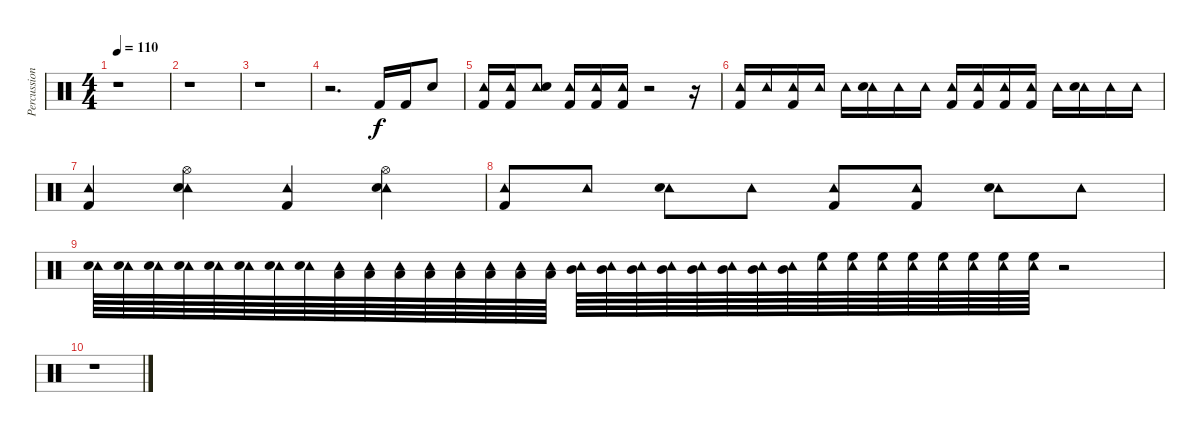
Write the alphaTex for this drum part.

\track ("Percussion" "Percussion") {instrument percussion}
\staff {score}
\articulation defaults
\ts (4 4)
\tempo 110
\clef neutral
\ks c
r.1{dy f} |
r.1 |
r.1 |
r.2{d} "Kick (hit) 2".16 "Kick (hit) 2".16 "Snare (hit) 2".8 |
("Tambourine (hit)" "Kick (hit) 2").16 ("Tambourine (hit)" "Kick (hit) 2").16 ("Tambourine (hit)" "Snare (hit) 2").8 ("Tambourine (hit)" "Kick (hit) 2").16 ("Tambourine (hit)" "Kick (hit) 2").16 ("Tambourine (hit)" "Kick (hit) 2").16 r.2 r.16 |
("Tambourine (hit)" "Kick (hit) 2").16 "Tambourine (hit)".16 ("Tambourine (hit)" "Kick (hit) 2").16 "Tambourine (hit)".16 "Tambourine (hit)".16 ("Tambourine (hit)" "Snare (hit) 2").16 "Tambourine (hit)".16 "Tambourine (hit)".16 ("Tambourine (hit)" "Kick (hit) 2").16 ("Tambourine (hit)" "Kick (hit) 2").16 ("Tambourine (hit)" "Kick (hit) 2").16 ("Tambourine (hit)" "Kick (hit) 2").16 "Tambourine (hit)".16 ("Tambourine (hit)" "Snare (hit) 2").16 "Tambourine (hit)".16 "Tambourine (hit)".16 |
("Tambourine (hit)" "Kick (hit) 2").4 ("Tambourine (hit)" "Hi-Hat (open)" "Snare (hit) 2").4 ("Tambourine (hit)" "Kick (hit) 2").4 ("Tambourine (hit)" "Hi-Hat (open)" "Snare (hit) 2").4 |
("Tambourine (hit)" "Kick (hit) 2").8 "Tambourine (hit)".8 ("Tambourine (hit)" "Snare (hit) 2").8 "Tambourine (hit)".8 ("Tambourine (hit)" "Kick (hit) 2").8 ("Tambourine (hit)" "Kick (hit) 2").8 ("Tambourine (hit)" "Snare (hit) 2").8 "Tambourine (hit)".8 |
("Tambourine (hit)" "Snare (hit) 2").64 ("Tambourine (hit)" "Snare (hit) 2").64 ("Tambourine (hit)" "Snare (hit) 2").64 ("Tambourine (hit)" "Snare (hit) 2").64 ("Tambourine (hit)" "Snare (hit) 2").64 ("Tambourine (hit)" "Snare (hit) 2").64 ("Tambourine (hit)" "Snare (hit) 2").64 ("Tambourine (hit)" "Snare (hit) 2").64 ("Tambourine (hit)" "Low Tom (hit)").64 ("Tambourine (hit)" "Low Tom (hit)").64 ("Tambourine (hit)" "Low Tom (hit)").64 ("Tambourine (hit)" "Low Tom (hit)").64 ("Tambourine (hit)" "Low Tom (hit)").64 ("Tambourine (hit)" "Low Tom (hit)").64 ("Tambourine (hit)" "Low Tom (hit)").64 ("Tambourine (hit)" "Low Tom (hit)").64 ("Tambourine (hit)" "Mid Tom (hit)").64 ("Tambourine (hit)" "Mid Tom (hit)").64 ("Tambourine (hit)" "Mid Tom (hit)").64 ("Tambourine (hit)" "Mid Tom (hit)").64 ("Tambourine (hit)" "Mid Tom (hit)").64 ("Tambourine (hit)" "Mid Tom (hit)").64 ("Tambourine (hit)" "Mid Tom (hit)").64 ("Tambourine (hit)" "Mid Tom (hit)").64 ("Tambourine (hit)" "High Floor Tom (hit)").64 ("Tambourine (hit)" "High Floor Tom (hit)").64 ("Tambourine (hit)" "High Floor Tom (hit)").64 ("Tambourine (hit)" "High Floor Tom (hit)").64 ("Tambourine (hit)" "High Floor Tom (hit)").64 ("Tambourine (hit)" "High Floor Tom (hit)").64 ("Tambourine (hit)" "High Floor Tom (hit)").64 ("Tambourine (hit)" "High Floor Tom (hit)").64 r.2 |
r.1
